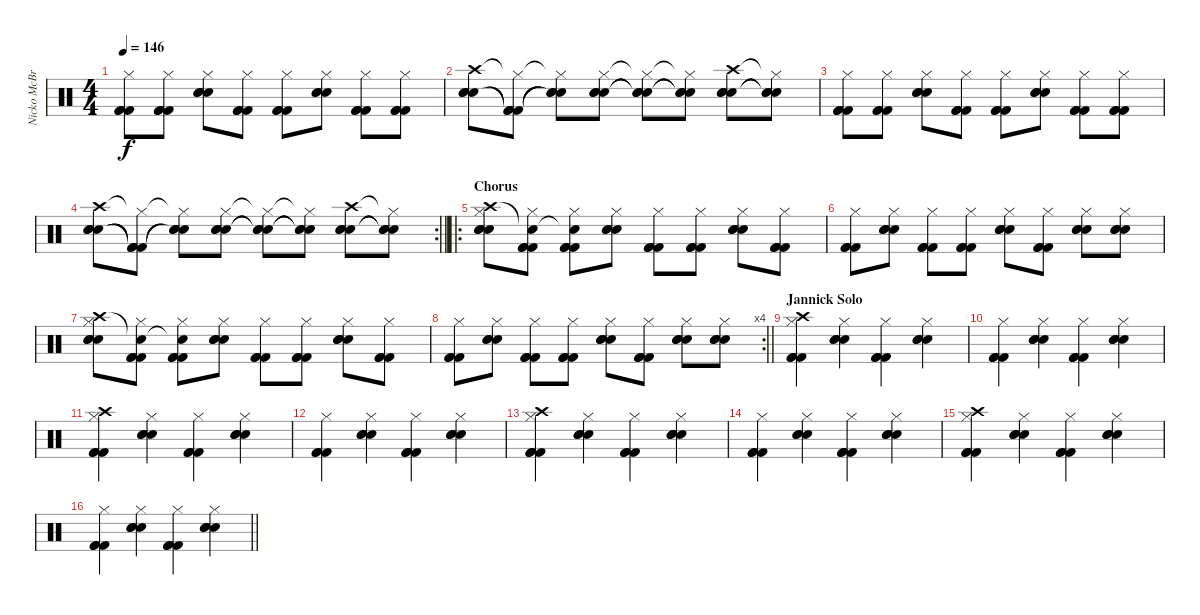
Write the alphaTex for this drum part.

\track ("Nicko McBrain" "Nicko McBr") {instrument percussion}
\staff {score}
\articulation defaults
\ts (4 4)
\tempo 146
\clef neutral
\ks c
("Hi-Hat (closed)" "Kick (hit) 2" "Kick (hit) 2" "Kick (hit) 2").8{dy f} ("Hi-Hat (closed)" "Kick (hit) 2" "Kick (hit) 2" "Kick (hit) 2").8 ("Hi-Hat (closed)" "Snare (hit) 2" "Snare (hit) 2" "Snare (hit) 2").8 ("Hi-Hat (closed)" "Kick (hit) 2" "Kick (hit) 2" "Kick (hit) 2").8 ("Hi-Hat (closed)" "Kick (hit) 2" "Kick (hit) 2" "Kick (hit) 2").8 ("Hi-Hat (closed)" "Snare (hit) 2" "Snare (hit) 2" "Snare (hit) 2").8 ("Hi-Hat (closed)" "Kick (hit) 2" "Kick (hit) 2" "Kick (hit) 2").8 ("Hi-Hat (closed)" "Kick (hit) 2" "Kick (hit) 2" "Kick (hit) 2").8 |
("Crash high (hit)" "Snare (hit) 2" "Snare (hit) 2" "Snare (hit) 2").8 ("Hi-Hat (closed)"{t} "Kick (hit) 2"{t} "Kick (hit) 2"{t} "Kick (hit) 2"{t}).8 ("Hi-Hat (closed)"{t} "Snare (hit) 2"{t} "Snare (hit) 2"{t} "Snare (hit) 2"{t}).8 ("Hi-Hat (closed)" "Snare (hit) 2" "Snare (hit) 2" "Snare (hit) 2").8 ("Hi-Hat (closed)"{t} "Snare (hit) 2"{t} "Snare (hit) 2"{t} "Snare (hit) 2"{t}).8 ("Hi-Hat (closed)"{t} "Snare (hit) 2"{t} "Snare (hit) 2"{t} "Snare (hit) 2"{t}).8 ("Crash high (hit)" "Snare (hit) 2" "Snare (hit) 2" "Snare (hit) 2").8 ("Hi-Hat (closed)"{t} "Snare (hit) 2"{t} "Snare (hit) 2"{t} "Snare (hit) 2"{t}).8 |
("Hi-Hat (closed)" "Kick (hit) 2" "Kick (hit) 2" "Kick (hit) 2").8 ("Hi-Hat (closed)" "Kick (hit) 2" "Kick (hit) 2" "Kick (hit) 2").8 ("Hi-Hat (closed)" "Snare (hit) 2" "Snare (hit) 2" "Snare (hit) 2").8 ("Hi-Hat (closed)" "Kick (hit) 2" "Kick (hit) 2" "Kick (hit) 2").8 ("Hi-Hat (closed)" "Kick (hit) 2" "Kick (hit) 2" "Kick (hit) 2").8 ("Hi-Hat (closed)" "Snare (hit) 2" "Snare (hit) 2" "Snare (hit) 2").8 ("Hi-Hat (closed)" "Kick (hit) 2" "Kick (hit) 2" "Kick (hit) 2").8 ("Hi-Hat (closed)" "Kick (hit) 2" "Kick (hit) 2" "Kick (hit) 2").8 |
\rc 2
\barLineRight lightlight
("Crash high (hit)" "Snare (hit) 2" "Snare (hit) 2" "Snare (hit) 2").8 ("Hi-Hat (closed)"{t} "Kick (hit) 2"{t} "Kick (hit) 2"{t} "Kick (hit) 2"{t}).8 ("Hi-Hat (closed)"{t} "Snare (hit) 2"{t} "Snare (hit) 2"{t} "Snare (hit) 2"{t}).8 ("Hi-Hat (closed)" "Snare (hit) 2" "Snare (hit) 2" "Snare (hit) 2").8 ("Hi-Hat (closed)"{t} "Snare (hit) 2"{t} "Snare (hit) 2"{t} "Snare (hit) 2"{t}).8 ("Hi-Hat (closed)"{t} "Snare (hit) 2"{t} "Snare (hit) 2"{t} "Snare (hit) 2"{t}).8 ("Crash high (hit)" "Snare (hit) 2" "Snare (hit) 2" "Snare (hit) 2").8 ("Hi-Hat (closed)"{t} "Snare (hit) 2"{t} "Snare (hit) 2"{t} "Snare (hit) 2"{t}).8 |
\ro
\section ("" "Chorus")
("Crash high (hit)" "Hi-Hat (closed)" "Snare (hit) 2" "Snare (hit) 2" "Snare (hit) 2").8 ("Snare (hit)"{t} "Hi-Hat (closed)" "Kick (hit) 2" "Kick (hit) 2" "Kick (hit) 2").8 ("Snare (hit)"{t} "Hi-Hat (closed)" "Kick (hit) 2" "Kick (hit) 2" "Kick (hit) 2").8 ("Hi-Hat (closed)" "Snare (hit) 2" "Snare (hit) 2" "Snare (hit) 2").8 ("Hi-Hat (closed)" "Kick (hit) 2" "Kick (hit) 2" "Kick (hit) 2").8 ("Hi-Hat (closed)" "Kick (hit) 2" "Kick (hit) 2" "Kick (hit) 2").8 ("Hi-Hat (closed)" "Snare (hit) 2" "Snare (hit) 2" "Snare (hit) 2").8 ("Hi-Hat (closed)" "Kick (hit) 2" "Kick (hit) 2" "Kick (hit) 2").8 |
("Hi-Hat (closed)" "Kick (hit) 2" "Kick (hit) 2" "Kick (hit) 2").8 ("Hi-Hat (closed)" "Snare (hit) 2" "Snare (hit) 2" "Snare (hit) 2").8 ("Hi-Hat (closed)" "Kick (hit) 2" "Kick (hit) 2" "Kick (hit) 2").8 ("Hi-Hat (closed)" "Kick (hit) 2" "Kick (hit) 2" "Kick (hit) 2").8 ("Hi-Hat (closed)" "Snare (hit) 2" "Snare (hit) 2" "Snare (hit) 2").8 ("Hi-Hat (closed)" "Kick (hit) 2" "Kick (hit) 2" "Kick (hit) 2").8 ("Hi-Hat (closed)" "Snare (hit) 2" "Snare (hit) 2" "Snare (hit) 2").8 ("Hi-Hat (closed)" "Snare (hit) 2" "Snare (hit) 2" "Snare (hit) 2").8 |
("Crash high (hit)" "Hi-Hat (closed)" "Snare (hit) 2" "Snare (hit) 2" "Snare (hit) 2").8 ("Snare (hit)"{t} "Hi-Hat (closed)" "Kick (hit) 2" "Kick (hit) 2" "Kick (hit) 2").8 ("Snare (hit)"{t} "Hi-Hat (closed)" "Kick (hit) 2" "Kick (hit) 2" "Kick (hit) 2").8 ("Hi-Hat (closed)" "Snare (hit) 2" "Snare (hit) 2" "Snare (hit) 2").8 ("Hi-Hat (closed)" "Kick (hit) 2" "Kick (hit) 2" "Kick (hit) 2").8 ("Hi-Hat (closed)" "Kick (hit) 2" "Kick (hit) 2" "Kick (hit) 2").8 ("Hi-Hat (closed)" "Snare (hit) 2" "Snare (hit) 2" "Snare (hit) 2").8 ("Hi-Hat (closed)" "Kick (hit) 2" "Kick (hit) 2" "Kick (hit) 2").8 |
\rc 4
\barLineRight lightlight
("Hi-Hat (closed)" "Kick (hit) 2" "Kick (hit) 2" "Kick (hit) 2").8 ("Hi-Hat (closed)" "Snare (hit) 2" "Snare (hit) 2" "Snare (hit) 2").8 ("Hi-Hat (closed)" "Kick (hit) 2" "Kick (hit) 2" "Kick (hit) 2").8 ("Hi-Hat (closed)" "Kick (hit) 2" "Kick (hit) 2" "Kick (hit) 2").8 ("Hi-Hat (closed)" "Snare (hit) 2" "Snare (hit) 2" "Snare (hit) 2").8 ("Hi-Hat (closed)" "Kick (hit) 2" "Kick (hit) 2" "Kick (hit) 2").8 ("Hi-Hat (closed)" "Snare (hit) 2" "Snare (hit) 2" "Snare (hit) 2").8 ("Hi-Hat (closed)" "Snare (hit) 2" "Snare (hit) 2" "Snare (hit) 2").8 |
\section ("" "Jannick Solo")
("Crash high (hit)" "Hi-Hat (closed)" "Kick (hit) 2" "Kick (hit) 2" "Kick (hit) 2").4 ("Hi-Hat (closed)" "Snare (hit) 2" "Snare (hit) 2" "Snare (hit) 2").4 ("Hi-Hat (closed)" "Kick (hit) 2" "Kick (hit) 2" "Kick (hit) 2").4 ("Hi-Hat (closed)" "Snare (hit) 2" "Snare (hit) 2" "Snare (hit) 2").4 |
("Hi-Hat (closed)" "Kick (hit) 2" "Kick (hit) 2" "Kick (hit) 2").4 ("Hi-Hat (closed)" "Snare (hit) 2" "Snare (hit) 2" "Snare (hit) 2").4 ("Hi-Hat (closed)" "Kick (hit) 2" "Kick (hit) 2" "Kick (hit) 2").4 ("Hi-Hat (closed)" "Snare (hit) 2" "Snare (hit) 2" "Snare (hit) 2").4 |
("Crash high (hit)" "Hi-Hat (closed)" "Kick (hit) 2" "Kick (hit) 2" "Kick (hit) 2").4 ("Hi-Hat (closed)" "Snare (hit) 2" "Snare (hit) 2" "Snare (hit) 2").4 ("Hi-Hat (closed)" "Kick (hit) 2" "Kick (hit) 2" "Kick (hit) 2").4 ("Hi-Hat (closed)" "Snare (hit) 2" "Snare (hit) 2" "Snare (hit) 2").4 |
("Hi-Hat (closed)" "Kick (hit) 2" "Kick (hit) 2" "Kick (hit) 2").4 ("Hi-Hat (closed)" "Snare (hit) 2" "Snare (hit) 2" "Snare (hit) 2").4 ("Hi-Hat (closed)" "Kick (hit) 2" "Kick (hit) 2" "Kick (hit) 2").4 ("Hi-Hat (closed)" "Snare (hit) 2" "Snare (hit) 2" "Snare (hit) 2").4 |
("Crash high (hit)" "Hi-Hat (closed)" "Kick (hit) 2" "Kick (hit) 2" "Kick (hit) 2").4 ("Hi-Hat (closed)" "Snare (hit) 2" "Snare (hit) 2" "Snare (hit) 2").4 ("Hi-Hat (closed)" "Kick (hit) 2" "Kick (hit) 2" "Kick (hit) 2").4 ("Hi-Hat (closed)" "Snare (hit) 2" "Snare (hit) 2" "Snare (hit) 2").4 |
("Hi-Hat (closed)" "Kick (hit) 2" "Kick (hit) 2" "Kick (hit) 2").4 ("Hi-Hat (closed)" "Snare (hit) 2" "Snare (hit) 2" "Snare (hit) 2").4 ("Hi-Hat (closed)" "Kick (hit) 2" "Kick (hit) 2" "Kick (hit) 2").4 ("Hi-Hat (closed)" "Snare (hit) 2" "Snare (hit) 2" "Snare (hit) 2").4 |
("Crash high (hit)" "Hi-Hat (closed)" "Kick (hit) 2" "Kick (hit) 2" "Kick (hit) 2").4 ("Hi-Hat (closed)" "Snare (hit) 2" "Snare (hit) 2" "Snare (hit) 2").4 ("Hi-Hat (closed)" "Kick (hit) 2" "Kick (hit) 2" "Kick (hit) 2").4 ("Hi-Hat (closed)" "Snare (hit) 2" "Snare (hit) 2" "Snare (hit) 2").4 |
\barLineRight lightlight
("Hi-Hat (closed)" "Kick (hit) 2" "Kick (hit) 2" "Kick (hit) 2").4 ("Hi-Hat (closed)" "Snare (hit) 2" "Snare (hit) 2" "Snare (hit) 2").4 ("Hi-Hat (closed)" "Kick (hit) 2" "Kick (hit) 2" "Kick (hit) 2").4 ("Hi-Hat (closed)" "Snare (hit) 2" "Snare (hit) 2" "Snare (hit) 2").4
